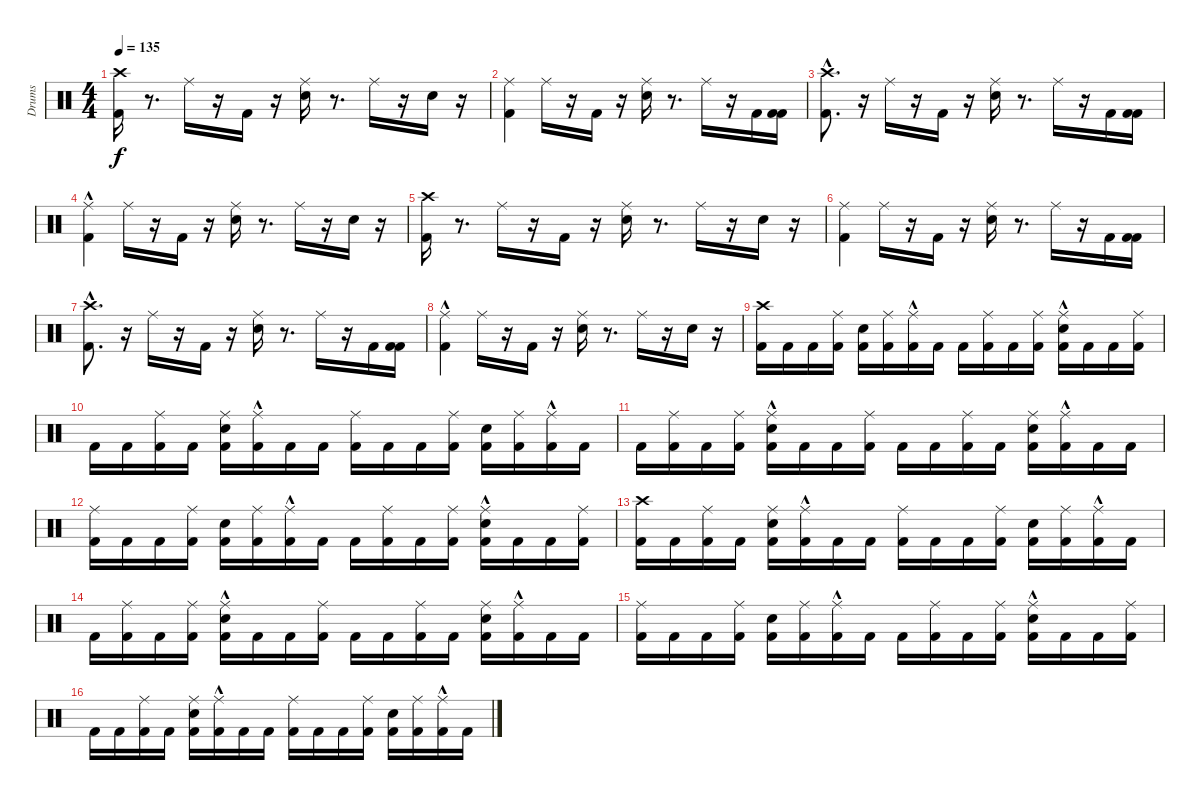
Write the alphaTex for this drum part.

\track ("Drums" "Drums") {instrument percussion}
\staff {score}
\articulation defaults
\ts (4 4)
\tempo 135
\clef neutral
\ks c
("Kick (hit) 2" "Crash high (hit)").16{dy f} r.8{d} "Ride (middle)".16 r.16 "Kick (hit) 2".16 r.16 ("Snare (hit) 2" "Ride (middle)").16 r.8{d} "Ride (middle)".16 r.16 "Snare (hit) 2".16 r.16 |
("Kick (hit) 2" "Ride (middle)").4 "Ride (middle)".16 r.16 "Kick (hit) 2".16 r.16 ("Snare (hit) 2" "Ride (middle)").16 r.8{d} "Ride (middle)".16 r.16 "Kick (hit) 2".16 ("Kick (hit) 2" "Kick (hit) 2").16 |
("Kick (hit) 2"{hac} "Crash high (hit)").8{d} r.16 "Ride (middle)".16 r.16 "Kick (hit) 2".16 r.16 ("Snare (hit) 2" "Ride (middle)").16 r.8{d} "Ride (middle)".16 r.16 "Kick (hit) 2".16 ("Kick (hit) 2" "Kick (hit) 2").16 |
("Kick (hit) 2"{hac} "Ride (middle)").4 "Ride (middle)".16 r.16 "Kick (hit) 2".16 r.16 ("Snare (hit) 2" "Ride (middle)").16 r.8{d} "Ride (middle)".16 r.16 "Snare (hit) 2".16 r.16 |
("Kick (hit) 2" "Crash high (hit)").16 r.8{d} "Ride (middle)".16 r.16 "Kick (hit) 2".16 r.16 ("Snare (hit) 2" "Ride (middle)").16 r.8{d} "Ride (middle)".16 r.16 "Snare (hit) 2".16 r.16 |
("Kick (hit) 2" "Ride (middle)").4 "Ride (middle)".16 r.16 "Kick (hit) 2".16 r.16 ("Snare (hit) 2" "Ride (middle)").16 r.8{d} "Ride (middle)".16 r.16 "Kick (hit) 2".16 ("Kick (hit) 2" "Kick (hit) 2").16 |
("Kick (hit) 2"{hac} "Crash high (hit)").8{d} r.16 "Ride (middle)".16 r.16 "Kick (hit) 2".16 r.16 ("Snare (hit) 2" "Ride (middle)").16 r.8{d} "Ride (middle)".16 r.16 "Kick (hit) 2".16 ("Kick (hit) 2" "Kick (hit) 2").16 |
("Kick (hit) 2"{hac} "Ride (middle)").4 "Ride (middle)".16 r.16 "Kick (hit) 2".16 r.16 ("Snare (hit) 2" "Ride (middle)").16 r.8{d} "Ride (middle)".16 r.16 "Snare (hit) 2".16 r.16 |
("Kick (hit) 2" "Crash high (hit)").16 "Kick (hit) 2".16 "Kick (hit) 2".16 ("Kick (hit) 2" "Ride (middle)").16 ("Kick (hit) 2" "Snare (hit) 2").16 ("Kick (hit) 2" "Ride (middle)").16 ("Kick (hit) 2" "Ride (middle)"{hac}).16 "Kick (hit) 2".16 "Kick (hit) 2".16 ("Kick (hit) 2" "Ride (middle)").16 "Kick (hit) 2".16 ("Kick (hit) 2" "Ride (middle)").16 ("Kick (hit) 2" "Snare (hit) 2" "Ride (middle)"{hac}).16 "Kick (hit) 2".16 "Kick (hit) 2".16 ("Kick (hit) 2" "Ride (middle)").16 |
"Kick (hit) 2".16 "Kick (hit) 2".16 ("Kick (hit) 2" "Ride (middle)").16 "Kick (hit) 2".16 ("Kick (hit) 2" "Snare (hit) 2" "Ride (middle)").16 ("Kick (hit) 2" "Ride (middle)"{hac}).16 "Kick (hit) 2".16 "Kick (hit) 2".16 ("Kick (hit) 2" "Ride (middle)").16 "Kick (hit) 2".16 "Kick (hit) 2".16 ("Kick (hit) 2" "Ride (middle)").16 ("Kick (hit) 2" "Snare (hit) 2").16 ("Kick (hit) 2" "Ride (middle)").16 ("Kick (hit) 2" "Ride (middle)"{hac}).16 "Kick (hit) 2".16 |
"Kick (hit) 2".16 ("Kick (hit) 2" "Ride (middle)").16 "Kick (hit) 2".16 ("Kick (hit) 2" "Ride (middle)").16 ("Kick (hit) 2" "Snare (hit) 2" "Ride (middle)"{hac}).16 "Kick (hit) 2".16 "Kick (hit) 2".16 ("Kick (hit) 2" "Ride (middle)").16 "Kick (hit) 2".16 "Kick (hit) 2".16 ("Kick (hit) 2" "Ride (middle)").16 "Kick (hit) 2".16 ("Kick (hit) 2" "Snare (hit) 2" "Ride (middle)").16 ("Kick (hit) 2" "Ride (middle)"{hac}).16 "Kick (hit) 2".16 "Kick (hit) 2".16 |
("Kick (hit) 2" "Ride (middle)").16 "Kick (hit) 2".16 "Kick (hit) 2".16 ("Kick (hit) 2" "Ride (middle)").16 ("Kick (hit) 2" "Snare (hit) 2").16 ("Kick (hit) 2" "Ride (middle)").16 ("Kick (hit) 2" "Ride (middle)"{hac}).16 "Kick (hit) 2".16 "Kick (hit) 2".16 ("Kick (hit) 2" "Ride (middle)").16 "Kick (hit) 2".16 ("Kick (hit) 2" "Ride (middle)").16 ("Kick (hit) 2" "Snare (hit) 2" "Ride (middle)"{hac}).16 "Kick (hit) 2".16 "Kick (hit) 2".16 ("Kick (hit) 2" "Ride (middle)").16 |
("Kick (hit) 2" "Crash high (hit)").16 "Kick (hit) 2".16 ("Kick (hit) 2" "Ride (middle)").16 "Kick (hit) 2".16 ("Kick (hit) 2" "Snare (hit) 2" "Ride (middle)").16 ("Kick (hit) 2" "Ride (middle)"{hac}).16 "Kick (hit) 2".16 "Kick (hit) 2".16 ("Kick (hit) 2" "Ride (middle)").16 "Kick (hit) 2".16 "Kick (hit) 2".16 ("Kick (hit) 2" "Ride (middle)").16 ("Kick (hit) 2" "Snare (hit) 2").16 ("Kick (hit) 2" "Ride (middle)").16 ("Kick (hit) 2" "Ride (middle)"{hac}).16 "Kick (hit) 2".16 |
"Kick (hit) 2".16 ("Kick (hit) 2" "Ride (middle)").16 "Kick (hit) 2".16 ("Kick (hit) 2" "Ride (middle)").16 ("Kick (hit) 2" "Snare (hit) 2" "Ride (middle)"{hac}).16 "Kick (hit) 2".16 "Kick (hit) 2".16 ("Kick (hit) 2" "Ride (middle)").16 "Kick (hit) 2".16 "Kick (hit) 2".16 ("Kick (hit) 2" "Ride (middle)").16 "Kick (hit) 2".16 ("Kick (hit) 2" "Snare (hit) 2" "Ride (middle)").16 ("Kick (hit) 2" "Ride (middle)"{hac}).16 "Kick (hit) 2".16 "Kick (hit) 2".16 |
("Kick (hit) 2" "Ride (middle)").16 "Kick (hit) 2".16 "Kick (hit) 2".16 ("Kick (hit) 2" "Ride (middle)").16 ("Kick (hit) 2" "Snare (hit) 2").16 ("Kick (hit) 2" "Ride (middle)").16 ("Kick (hit) 2" "Ride (middle)"{hac}).16 "Kick (hit) 2".16 "Kick (hit) 2".16 ("Kick (hit) 2" "Ride (middle)").16 "Kick (hit) 2".16 ("Kick (hit) 2" "Ride (middle)").16 ("Kick (hit) 2" "Snare (hit) 2" "Ride (middle)"{hac}).16 "Kick (hit) 2".16 "Kick (hit) 2".16 ("Kick (hit) 2" "Ride (middle)").16 |
"Kick (hit) 2".16 "Kick (hit) 2".16 ("Kick (hit) 2" "Ride (middle)").16 "Kick (hit) 2".16 ("Kick (hit) 2" "Snare (hit) 2" "Ride (middle)").16 ("Kick (hit) 2" "Ride (middle)"{hac}).16 "Kick (hit) 2".16 "Kick (hit) 2".16 ("Kick (hit) 2" "Ride (middle)").16 "Kick (hit) 2".16 "Kick (hit) 2".16 ("Kick (hit) 2" "Ride (middle)").16 ("Kick (hit) 2" "Snare (hit) 2").16 ("Kick (hit) 2" "Ride (middle)").16 ("Kick (hit) 2" "Ride (middle)"{hac}).16 "Kick (hit) 2".16
